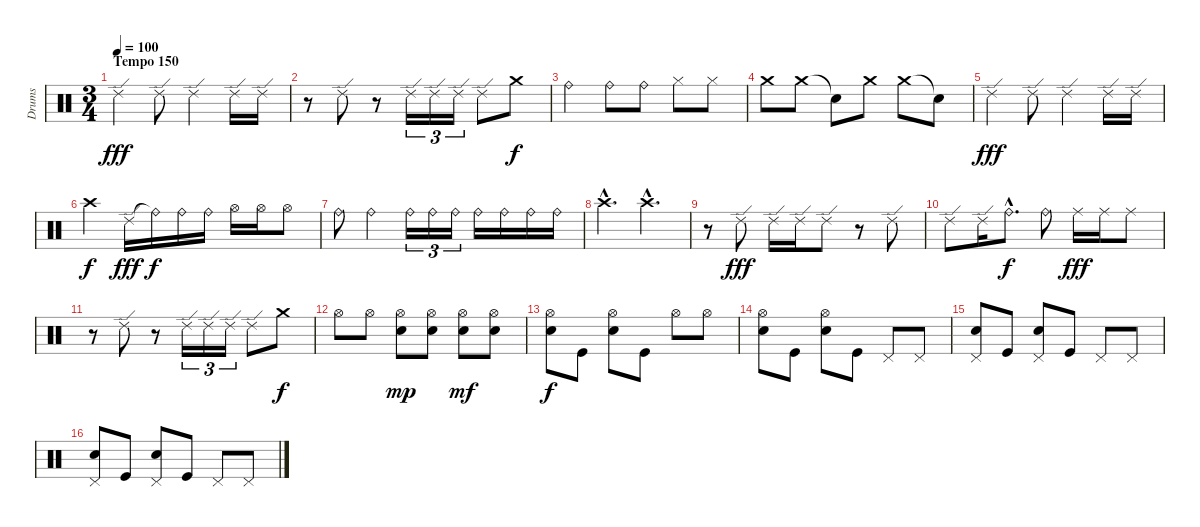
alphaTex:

\track ("Drums" "Drums") {instrument percussion}
\staff {score}
\articulation defaults
\ts (3 4)
\section ("" "Tempo 150")
\tempo 100
\tempo 150
\tempo 100
\clef neutral
\ks c "Ride (edge) 2".4{dy fff} "Ride (edge) 2".8 "Ride (edge) 2".4 "Ride (edge) 2".16 "Ride (edge) 2".16
|
r.8 "Ride (edge) 2".8 r.8 "Ride (edge) 2".16{tu (3 2)} "Ride (edge) 2".16{tu (3 2)} "Ride (edge) 2".16{tu (3 2)} "Ride (edge) 2".8 "Crash medium (hit)".8{dy f} |
"Ride (bell)".4 "Ride (bell)".8 "Ride (bell)".8 "Hi-Hat (closed)".8 "Hi-Hat (closed)".8 |
"Crash medium (hit)".8 "Crash medium (hit)".8 "Snare (hit)"{t}.8 "Crash medium (hit)".8 "Crash medium (hit)".8 "Snare (hit)"{t}.8 |
"Ride (edge) 2".4{dy fff} "Ride (edge) 2".8 "Ride (edge) 2".4 "Ride (edge) 2".16 "Ride (edge) 2".16 |
"Crash high (hit)".4{dy f} "Ride (edge) 2".16{dy fff} "Ride (bell)"{t}.16{dy f} "Ride (bell)".16 "Ride (bell)".16 "Hi-Hat (open)".16 "Hi-Hat (open)".16 "Hi-Hat (open)".8 |
"Ride (bell)".8 "Ride (bell)".4 "Ride (bell)".16{tu (3 2)} "Ride (bell)".16{tu (3 2)} "Ride (bell)".16{tu (3 2)} "Ride (bell)".16 "Ride (bell)".16 "Ride (bell)".16 "Ride (bell)".16 |
"Crash high (hit)"{hac}.4{d} "Crash high (hit)"{hac}.4{d} |
r.8 "Ride (edge) 2".8{dy fff} "Ride (edge) 2".16 "Ride (edge) 2".16 "Ride (edge) 2".8 r.8 "Ride (edge) 2".8 |
"Ride (edge) 2".8 "Ride (edge) 2".16 "Ride (bell)"{hac}.8{d dy f} "Ride (bell)".8 "Ride (middle)".16{dy fff} "Ride (middle)".16 "Ride (middle)".8 |
r.8 "Ride (edge) 2".8 r.8 "Ride (edge) 2".16{tu (3 2)} "Ride (edge) 2".16{tu (3 2)} "Ride (edge) 2".16{tu (3 2)} "Ride (edge) 2".8 "Crash medium (hit)".8{dy f} |
"Hi-Hat (open)".8 "Hi-Hat (open)".8 ("Hi-Hat (open)" "Snare (hit) 2").8{dy mp} ("Hi-Hat (open)" "Snare (hit) 2").8 ("Hi-Hat (open)" "Snare (hit) 2").8{dy mf} ("Hi-Hat (open)" "Snare (hit) 2").8 |
("Hi-Hat (open)" "Snare (hit) 2").8{dy f} "Kick (hit)".8 ("Hi-Hat (open)" "Snare (hit) 2").8 "Kick (hit)".8 "Hi-Hat (open)".8 "Hi-Hat (open)".8 |
("Hi-Hat (open)" "Snare (hit) 2").8 "Kick (hit)".8 ("Hi-Hat (open)" "Snare (hit) 2").8 "Kick (hit)".8 "Pedal Hi-Hat (hit)".8 "Pedal Hi-Hat (hit)".8 |
("Pedal Hi-Hat (hit)" "Snare (hit) 2").8 "Kick (hit)".8 ("Pedal Hi-Hat (hit)" "Snare (hit) 2").8 "Kick (hit)".8 "Pedal Hi-Hat (hit)".8 "Pedal Hi-Hat (hit)".8 |
("Pedal Hi-Hat (hit)" "Snare (hit) 2").8 "Kick (hit)".8 ("Pedal Hi-Hat (hit)" "Snare (hit) 2").8 "Kick (hit)".8 "Pedal Hi-Hat (hit)".8 "Pedal Hi-Hat (hit)".8
